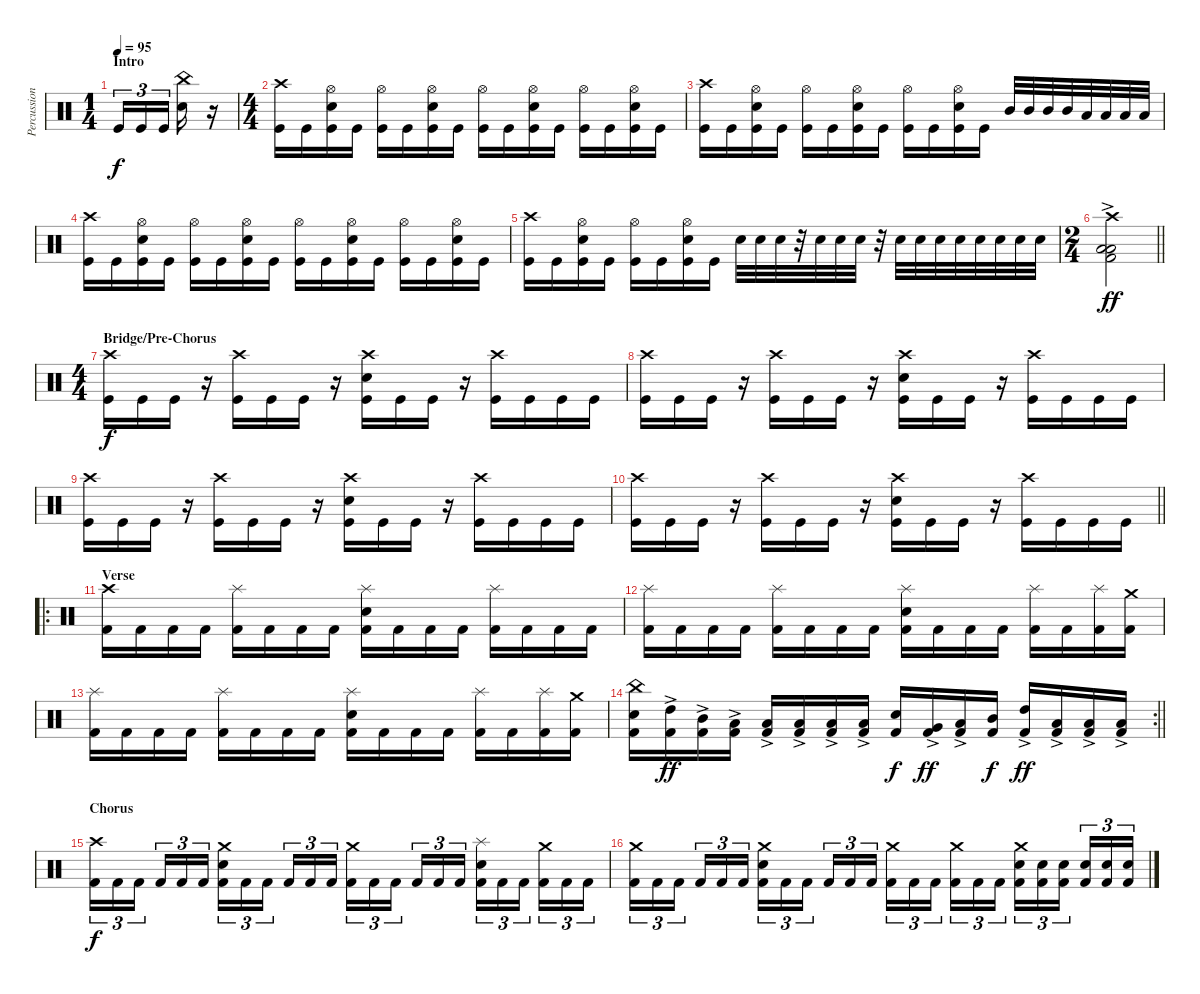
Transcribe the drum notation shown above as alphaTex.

\track ("Percussion" "Percussion") {instrument percussion}
\staff {score}
\articulation defaults
\ts (1 4)
\section ("" "Intro")
\tempo 95
\clef neutral
\ks c "Kick (hit)".16{tu (3 2) dy f} "Kick (hit)".16{tu (3 2)} "Kick (hit)".16{tu (3 2) beam splitsecondary}
("China (hit)" "Electric Snare (hit)").16 r.16 |
\ts (4 4)
("Crash high (hit)" "Kick (hit)").16 "Kick (hit)".16 ("Hi-Hat (open)" "Electric Snare (hit)" "Kick (hit)").16 "Kick (hit)".16 ("Hi-Hat (open)" "Kick (hit)").16 "Kick (hit)".16 ("Hi-Hat (open)" "Electric Snare (hit)" "Kick (hit)").16 "Kick (hit)".16 ("Hi-Hat (open)" "Kick (hit)").16 "Kick (hit)".16 ("Hi-Hat (open)" "Electric Snare (hit)" "Kick (hit)").16 "Kick (hit)".16 ("Hi-Hat (open)" "Kick (hit)").16 "Kick (hit)".16 ("Hi-Hat (open)" "Electric Snare (hit)" "Kick (hit)").16 "Kick (hit)".16 |
("Crash high (hit)" "Kick (hit)").16 "Kick (hit)".16 ("Hi-Hat (open)" "Electric Snare (hit)" "Kick (hit)").16 "Kick (hit)".16 ("Hi-Hat (open)" "Kick (hit)").16 "Kick (hit)".16 ("Hi-Hat (open)" "Electric Snare (hit)" "Kick (hit)").16 "Kick (hit)".16 ("Hi-Hat (open)" "Kick (hit)").16 "Kick (hit)".16 ("Hi-Hat (open)" "Electric Snare (hit)" "Kick (hit)").16 "Kick (hit)".16 "Mid Tom (hit)".32 "Mid Tom (hit)".32 "Mid Tom (hit)".32 "Mid Tom (hit)".32 "Low Tom (hit)".32 "Low Tom (hit)".32 "Low Tom (hit)".32 "Low Tom (hit)".32 |
("Crash high (hit)" "Kick (hit)").16 "Kick (hit)".16 ("Hi-Hat (open)" "Electric Snare (hit)" "Kick (hit)").16 "Kick (hit)".16 ("Hi-Hat (open)" "Kick (hit)").16 "Kick (hit)".16 ("Hi-Hat (open)" "Electric Snare (hit)" "Kick (hit)").16 "Kick (hit)".16 ("Hi-Hat (open)" "Kick (hit)").16 "Kick (hit)".16 ("Hi-Hat (open)" "Electric Snare (hit)" "Kick (hit)").16 "Kick (hit)".16 ("Hi-Hat (open)" "Kick (hit)").16 "Kick (hit)".16 ("Hi-Hat (open)" "Electric Snare (hit)" "Kick (hit)").16 "Kick (hit)".16 |
("Crash high (hit)" "Kick (hit)").16 "Kick (hit)".16 ("Hi-Hat (open)" "Electric Snare (hit)" "Kick (hit)").16 "Kick (hit)".16 ("Hi-Hat (open)" "Kick (hit)").16 "Kick (hit)".16 ("Hi-Hat (open)" "Electric Snare (hit)" "Kick (hit)").16 "Kick (hit)".16 "Electric Snare (hit)".32 "Electric Snare (hit)".32 "Electric Snare (hit)".32 r.32 "Electric Snare (hit)".32 "Electric Snare (hit)".32 "Electric Snare (hit)".32 r.32 "Electric Snare (hit)".32 "Electric Snare (hit)".32 "Electric Snare (hit)".32 "Electric Snare (hit)".32 "Electric Snare (hit)".32 "Electric Snare (hit)".32 "Electric Snare (hit)".32 "Electric Snare (hit)".32 |
\ts (2 4)
\barLineRight lightlight
("Crash high (hit)" "Low Floor Tom (hit)"{ac} "Low Floor Tom (hit)"{ac} "Kick (hit) 2").2{dy ff} |
\ts (4 4)
\section ("" "Bridge/Pre-Chorus")
("Crash high (hit)" "Kick (hit)").16{dy f} "Kick (hit)".16 "Kick (hit)".16 r.16 ("Crash high (hit)" "Kick (hit)").16 "Kick (hit)".16 "Kick (hit)".16 r.16 ("Crash high (hit)" "Electric Snare (hit)" "Kick (hit)").16 "Kick (hit)".16 "Kick (hit)".16 r.16 ("Crash high (hit)" "Kick (hit)").16 "Kick (hit)".16 "Kick (hit)".16 "Kick (hit)".16 |
("Crash high (hit)" "Kick (hit)").16 "Kick (hit)".16 "Kick (hit)".16 r.16 ("Crash high (hit)" "Kick (hit)").16 "Kick (hit)".16 "Kick (hit)".16 r.16 ("Crash high (hit)" "Electric Snare (hit)" "Kick (hit)").16 "Kick (hit)".16 "Kick (hit)".16 r.16 ("Crash high (hit)" "Kick (hit)").16 "Kick (hit)".16 "Kick (hit)".16 "Kick (hit)".16 |
("Crash high (hit)" "Kick (hit)").16 "Kick (hit)".16 "Kick (hit)".16 r.16 ("Crash high (hit)" "Kick (hit)").16 "Kick (hit)".16 "Kick (hit)".16 r.16 ("Crash high (hit)" "Electric Snare (hit)" "Kick (hit)").16 "Kick (hit)".16 "Kick (hit)".16 r.16 ("Crash high (hit)" "Kick (hit)").16 "Kick (hit)".16 "Kick (hit)".16 "Kick (hit)".16 |
\barLineRight lightlight
("Crash high (hit)" "Kick (hit)").16 "Kick (hit)".16 "Kick (hit)".16 r.16 ("Crash high (hit)" "Kick (hit)").16 "Kick (hit)".16 "Kick (hit)".16 r.16 ("Crash high (hit)" "Electric Snare (hit)" "Kick (hit)").16 "Kick (hit)".16 "Kick (hit)".16 r.16 ("Crash high (hit)" "Kick (hit)").16 "Kick (hit)".16 "Kick (hit)".16 "Kick (hit)".16 |
\ro
\section ("" "Verse")
("Crash high (hit)" "Kick (hit) 2").16 "Kick (hit) 2".16 "Kick (hit) 2".16 "Kick (hit) 2".16 ("Splash (hit)" "Kick (hit) 2").16 "Kick (hit) 2".16 "Kick (hit) 2".16 "Kick (hit) 2".16 ("Splash (hit)" "Electric Snare (hit)" "Kick (hit) 2").16 "Kick (hit) 2".16 "Kick (hit) 2".16 "Kick (hit) 2".16 ("Splash (hit)" "Kick (hit) 2").16 "Kick (hit) 2".16 "Kick (hit) 2".16 "Kick (hit) 2".16 |
("Splash (hit)" "Kick (hit) 2").16 "Kick (hit) 2".16 "Kick (hit) 2".16 "Kick (hit) 2".16 ("Splash (hit)" "Kick (hit) 2").16 "Kick (hit) 2".16 "Kick (hit) 2".16 "Kick (hit) 2".16 ("Splash (hit)" "Electric Snare (hit)" "Kick (hit) 2").16 "Kick (hit) 2".16 "Kick (hit) 2".16 "Kick (hit) 2".16 ("Splash (hit)" "Kick (hit) 2").16 "Kick (hit) 2".16 ("Splash (hit)" "Kick (hit) 2").16 ("Crash medium (hit)" "Kick (hit) 2").16 |
("Splash (hit)" "Kick (hit) 2").16 "Kick (hit) 2".16 "Kick (hit) 2".16 "Kick (hit) 2".16 ("Splash (hit)" "Kick (hit) 2").16 "Kick (hit) 2".16 "Kick (hit) 2".16 "Kick (hit) 2".16 ("Splash (hit)" "Electric Snare (hit)" "Kick (hit) 2").16 "Kick (hit) 2".16 "Kick (hit) 2".16 "Kick (hit) 2".16 ("Splash (hit)" "Kick (hit) 2").16 "Kick (hit) 2".16 ("Splash (hit)" "Kick (hit) 2").16 ("Crash medium (hit)" "Kick (hit) 2").16 |
\rc 2
\barLineRight lightlight
("China (hit)" "Electric Snare (hit)" "Kick (hit) 2").16 ("High Tom (hit)"{ac} "Kick (hit) 2").16{dy ff} ("Mid Tom (hit)"{ac} "Kick (hit) 2").16 ("Low Tom (hit)"{ac} "Kick (hit) 2").16 ("Low Floor Tom (hit)"{ac} "Kick (hit) 2").16 ("Low Floor Tom (hit)"{ac} "Kick (hit) 2").16 ("Low Floor Tom (hit)"{ac} "Kick (hit) 2").16 ("Low Floor Tom (hit)"{ac} "Kick (hit) 2").16 ("Electric Snare (hit)" "Kick (hit) 2").16{dy f} ("Very Low Tom (hit)"{ac} "Kick (hit) 2").16{dy ff} ("Low Tom (hit)"{ac} "Kick (hit) 2").16 ("Mid Tom (hit)" "Kick (hit) 2").16{dy f} ("High Tom (hit)"{ac} "Kick (hit) 2").16{dy ff} ("Low Floor Tom (hit)"{ac} "Kick (hit) 2").16 ("Low Floor Tom (hit)"{ac} "Kick (hit) 2").16 ("Low Floor Tom (hit)"{ac} "Kick (hit) 2").16 |
\section ("" "Chorus")
("Crash high (hit)" "Kick (hit) 2").16{tu (3 2) dy f} "Kick (hit) 2".16{tu (3 2)} "Kick (hit) 2".16{tu (3 2) beam splitsecondary} "Kick (hit) 2".16{tu (3 2)} "Kick (hit) 2".16{tu (3 2)} "Kick (hit) 2".16{tu (3 2)} ("Crash medium (hit)" "Electric Snare (hit)" "Kick (hit) 2").16{tu (3 2)} "Kick (hit) 2".16{tu (3 2)} "Kick (hit) 2".16{tu (3 2) beam splitsecondary} "Kick (hit) 2".16{tu (3 2)} "Kick (hit) 2".16{tu (3 2)} "Kick (hit) 2".16{tu (3 2)} ("Crash medium (hit)" "Kick (hit) 2").16{tu (3 2)} "Kick (hit) 2".16{tu (3 2)} "Kick (hit) 2".16{tu (3 2) beam splitsecondary} "Kick (hit) 2".16{tu (3 2)} "Kick (hit) 2".16{tu (3 2)} "Kick (hit) 2".16{tu (3 2)} ("Splash (hit)" "Electric Snare (hit)" "Kick (hit) 2").16{tu (3 2)} "Kick (hit) 2".16{tu (3 2)} "Kick (hit) 2".16{tu (3 2) beam splitsecondary} ("Crash medium (hit)" "Kick (hit) 2").16{tu (3 2)} "Kick (hit) 2".16{tu (3 2)} "Kick (hit) 2".16{tu (3 2)} |
("Crash medium (hit)" "Kick (hit) 2").16{tu (3 2)} "Kick (hit) 2".16{tu (3 2)} "Kick (hit) 2".16{tu (3 2) beam splitsecondary} "Kick (hit) 2".16{tu (3 2)} "Kick (hit) 2".16{tu (3 2)} "Kick (hit) 2".16{tu (3 2)} ("Crash medium (hit)" "Electric Snare (hit)" "Kick (hit) 2").16{tu (3 2)} "Kick (hit) 2".16{tu (3 2)} "Kick (hit) 2".16{tu (3 2) beam splitsecondary} "Kick (hit) 2".16{tu (3 2)} "Kick (hit) 2".16{tu (3 2)} "Kick (hit) 2".16{tu (3 2)} ("Crash medium (hit)" "Kick (hit) 2").16{tu (3 2)} "Kick (hit) 2".16{tu (3 2)} "Kick (hit) 2".16{tu (3 2) beam splitsecondary} ("Crash medium (hit)" "Kick (hit) 2").16{tu (3 2)} "Kick (hit) 2".16{tu (3 2)} "Kick (hit) 2".16{tu (3 2)} ("Crash medium (hit)" "Electric Snare (hit)" "Kick (hit) 2").16{tu (3 2)} ("Electric Snare (hit)" "Kick (hit) 2").16{tu (3 2)} ("Electric Snare (hit)" "Kick (hit) 2").16{tu (3 2) beam splitsecondary} ("Electric Snare (hit)" "Kick (hit) 2").16{tu (3 2)} ("Electric Snare (hit)" "Kick (hit) 2").16{tu (3 2)} ("Electric Snare (hit)" "Kick (hit) 2").16{tu (3 2)}
